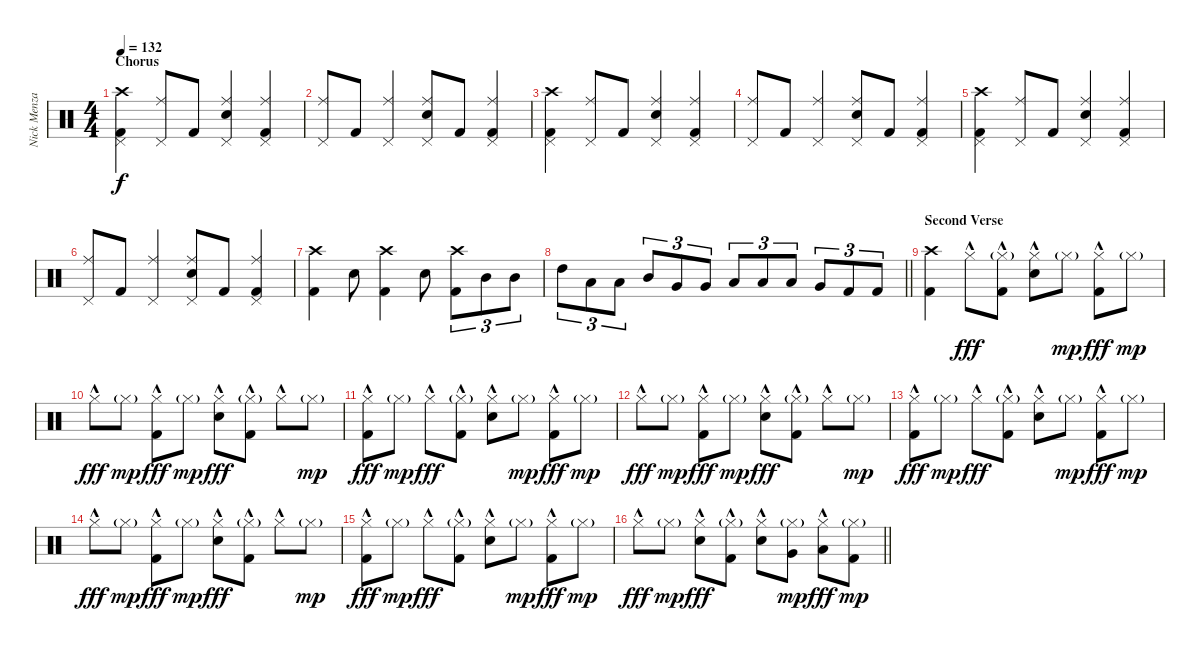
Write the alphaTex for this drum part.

\track ("Nick Menza" "Nick Menza") {instrument percussion}
\staff {score}
\articulation defaults
\ts (4 4)
\section ("" "Chorus")
\tempo 132
\clef neutral
\ks c
("Crash high (hit)" "Pedal Hi-Hat (hit)" "Kick (hit) 2").4{dy f} ("Ride (middle)" "Pedal Hi-Hat (hit)").8 "Kick (hit) 2".8 ("Ride (middle)" "Pedal Hi-Hat (hit)" "Snare (hit) 2").4 ("Ride (middle)" "Pedal Hi-Hat (hit)" "Kick (hit) 2").4 |
("Ride (middle)" "Pedal Hi-Hat (hit)").8 "Kick (hit) 2".8 ("Ride (middle)" "Pedal Hi-Hat (hit)").4 ("Ride (middle)" "Pedal Hi-Hat (hit)" "Snare (hit) 2").8 "Kick (hit) 2".8 ("Ride (middle)" "Pedal Hi-Hat (hit)" "Kick (hit) 2").4 |
("Crash high (hit)" "Pedal Hi-Hat (hit)" "Kick (hit) 2").4 ("Ride (middle)" "Pedal Hi-Hat (hit)").8 "Kick (hit) 2".8 ("Ride (middle)" "Pedal Hi-Hat (hit)" "Snare (hit) 2").4 ("Ride (middle)" "Pedal Hi-Hat (hit)" "Kick (hit) 2").4 |
("Ride (middle)" "Pedal Hi-Hat (hit)").8 "Kick (hit) 2".8 ("Ride (middle)" "Pedal Hi-Hat (hit)").4 ("Ride (middle)" "Pedal Hi-Hat (hit)" "Snare (hit) 2").8 "Kick (hit) 2".8 ("Ride (middle)" "Pedal Hi-Hat (hit)" "Kick (hit) 2").4 |
("Crash high (hit)" "Pedal Hi-Hat (hit)" "Kick (hit) 2").4 ("Ride (middle)" "Pedal Hi-Hat (hit)").8 "Kick (hit) 2".8 ("Ride (middle)" "Pedal Hi-Hat (hit)" "Snare (hit) 2").4 ("Ride (middle)" "Pedal Hi-Hat (hit)" "Kick (hit) 2").4 |
("Ride (middle)" "Pedal Hi-Hat (hit)").8 "Kick (hit) 2".8 ("Ride (middle)" "Pedal Hi-Hat (hit)").4 ("Ride (middle)" "Pedal Hi-Hat (hit)" "Snare (hit) 2").8 "Kick (hit) 2".8 ("Ride (middle)" "Pedal Hi-Hat (hit)" "Kick (hit) 2").4 |
("Crash high (hit)" "Kick (hit) 2").4 "Snare (hit) 2".8 ("Crash high (hit)" "Kick (hit) 2").4 "Snare (hit) 2".8 ("Crash high (hit)" "Kick (hit) 2").8{tu (3 2)} "Mid Tom (hit)".8{tu (3 2)} "Mid Tom (hit)".8{tu (3 2)} |
\barLineRight lightlight "High Tom (hit)".8{tu (3 2)} "Low Tom (hit)".8{tu (3 2)} "Low Tom (hit)".8{tu (3 2)} "Mid Tom (hit)".8{tu (3 2)} "Very Low Tom (hit)".8{tu (3 2)} "Very Low Tom (hit)".8{tu (3 2)} "Low Tom (hit)".8{tu (3 2)} "Low Floor Tom (hit)".8{tu (3 2)} "Low Floor Tom (hit)".8{tu (3 2)} "Very Low Tom (hit)".8{tu (3 2)} "Kick (hit) 2".8{tu (3 2)} "Kick (hit) 2".8{tu (3 2)}
|
\section ("" "Second Verse")
("Crash high (hit)" "Kick (hit) 2").4 "Hi-Hat (closed)"{hac}.8{dy fff} ("Hi-Hat (closed)"{g} "Kick (hit) 2"{hac}).8 ("Hi-Hat (closed)"{hac} "Snare (hit) 2"{hac}).8 "Hi-Hat (closed)"{g}.8{dy mp} ("Hi-Hat (closed)"{hac} "Kick (hit) 2"{hac}).8{dy fff} "Hi-Hat (closed)"{g}.8{dy mp} |
"Hi-Hat (closed)"{hac}.8{dy fff} "Hi-Hat (closed)"{g}.8{dy mp} ("Hi-Hat (closed)"{hac} "Kick (hit) 2"{hac}).8{dy fff} "Hi-Hat (closed)"{g}.8{dy mp} ("Hi-Hat (closed)"{hac} "Snare (hit) 2"{hac}).8{dy fff} ("Hi-Hat (closed)"{g} "Kick (hit) 2"{hac}).8 "Hi-Hat (closed)"{hac}.8 "Hi-Hat (closed)"{g}.8{dy mp} |
("Hi-Hat (closed)"{hac} "Kick (hit) 2"{hac}).8{dy fff} "Hi-Hat (closed)"{g}.8{dy mp} "Hi-Hat (closed)"{hac}.8{dy fff} ("Hi-Hat (closed)"{g} "Kick (hit) 2"{hac}).8 ("Hi-Hat (closed)"{hac} "Snare (hit) 2"{hac}).8 "Hi-Hat (closed)"{g}.8{dy mp} ("Hi-Hat (closed)"{hac} "Kick (hit) 2"{hac}).8{dy fff} "Hi-Hat (closed)"{g}.8{dy mp} |
"Hi-Hat (closed)"{hac}.8{dy fff} "Hi-Hat (closed)"{g}.8{dy mp} ("Hi-Hat (closed)"{hac} "Kick (hit) 2"{hac}).8{dy fff} "Hi-Hat (closed)"{g}.8{dy mp} ("Hi-Hat (closed)"{hac} "Snare (hit) 2"{hac}).8{dy fff} ("Hi-Hat (closed)"{g} "Kick (hit) 2"{hac}).8 "Hi-Hat (closed)"{hac}.8 "Hi-Hat (closed)"{g}.8{dy mp} |
("Hi-Hat (closed)"{hac} "Kick (hit) 2"{hac}).8{dy fff} "Hi-Hat (closed)"{g}.8{dy mp} "Hi-Hat (closed)"{hac}.8{dy fff} ("Hi-Hat (closed)"{g} "Kick (hit) 2"{hac}).8 ("Hi-Hat (closed)"{hac} "Snare (hit) 2"{hac}).8 "Hi-Hat (closed)"{g}.8{dy mp} ("Hi-Hat (closed)"{hac} "Kick (hit) 2"{hac}).8{dy fff} "Hi-Hat (closed)"{g}.8{dy mp} |
"Hi-Hat (closed)"{hac}.8{dy fff} "Hi-Hat (closed)"{g}.8{dy mp} ("Hi-Hat (closed)"{hac} "Kick (hit) 2"{hac}).8{dy fff} "Hi-Hat (closed)"{g}.8{dy mp} ("Hi-Hat (closed)"{hac} "Snare (hit) 2"{hac}).8{dy fff} ("Hi-Hat (closed)"{g} "Kick (hit) 2"{hac}).8 "Hi-Hat (closed)"{hac}.8 "Hi-Hat (closed)"{g}.8{dy mp} |
("Hi-Hat (closed)"{hac} "Kick (hit) 2"{hac}).8{dy fff} "Hi-Hat (closed)"{g}.8{dy mp} "Hi-Hat (closed)"{hac}.8{dy fff} ("Hi-Hat (closed)"{g} "Kick (hit) 2"{hac}).8 ("Hi-Hat (closed)"{hac} "Snare (hit) 2"{hac}).8 "Hi-Hat (closed)"{g}.8{dy mp} ("Hi-Hat (closed)"{hac} "Kick (hit) 2"{hac}).8{dy fff} "Hi-Hat (closed)"{g}.8{dy mp} |
\barLineRight lightlight "Hi-Hat (closed)"{hac}.8{dy fff} "Hi-Hat (closed)"{g}.8{dy mp}
("Hi-Hat (closed)"{hac} "Snare (hit) 2").8{dy fff} ("Hi-Hat (closed)"{g} "Kick (hit) 2"{hac}).8 ("Hi-Hat (closed)"{hac} "Snare (hit) 2"{hac}).8 ("Hi-Hat (closed)"{g} "Very Low Tom (hit)").8{dy mp} ("Hi-Hat (closed)"{hac} "Low Floor Tom (hit)").8{dy fff} ("Hi-Hat (closed)"{g} "Kick (hit) 2").8{dy mp}
